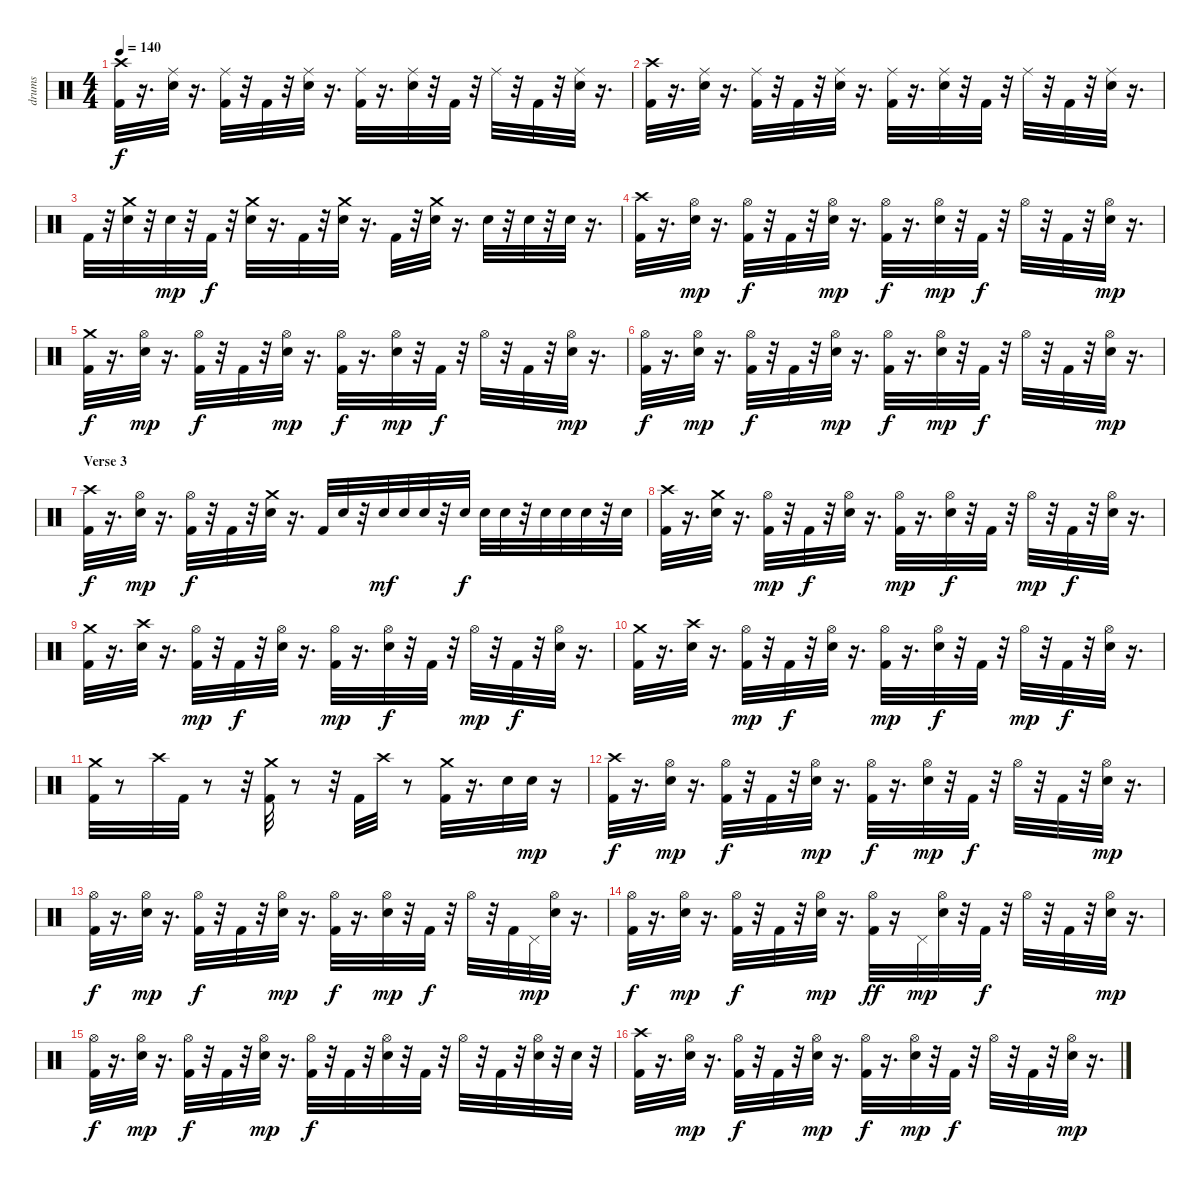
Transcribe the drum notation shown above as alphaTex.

\track ("drums" "drums") {instrument percussion}
\staff {score}
\articulation defaults
\ts (4 4)
\tempo 140
\clef neutral
\ks c
("Crash high (hit)" "Kick (hit) 2").32{dy f} r.16{d} ("Ride (middle)" "Electric Snare (hit)").32 r.16{d} ("Ride (middle)" "Kick (hit) 2").32 r.32 "Kick (hit) 2".32 r.32 ("Ride (middle)" "Electric Snare (hit)").32 r.16{d} ("Ride (middle)" "Kick (hit) 2").32 r.16{d} ("Ride (middle)" "Electric Snare (hit)").32 r.32 "Kick (hit) 2".32 r.32 "Ride (middle)".32 r.32 "Kick (hit) 2".32 r.32 ("Ride (middle)" "Electric Snare (hit)").32 r.16{d} |
("Crash high (hit)" "Kick (hit) 2").32 r.16{d} ("Ride (middle)" "Electric Snare (hit)").32 r.16{d} ("Ride (middle)" "Kick (hit) 2").32 r.32 "Kick (hit) 2".32 r.32 ("Ride (middle)" "Electric Snare (hit)").32 r.16{d} ("Ride (middle)" "Kick (hit) 2").32 r.16{d} ("Ride (middle)" "Electric Snare (hit)").32 r.32 "Kick (hit) 2".32 r.32 "Ride (middle)".32 r.32 "Kick (hit) 2".32 r.32 ("Ride (middle)" "Electric Snare (hit)").32 r.16{d} |
"Kick (hit) 2".32 r.32 ("Crash medium (hit)" "Electric Snare (hit)").32 r.32 "Electric Snare (hit)".32{dy mp} r.32 "Kick (hit) 2".32{dy f} r.32 ("Crash medium (hit)" "Electric Snare (hit)").32 r.16{d} "Kick (hit) 2".32 r.32 ("Crash medium (hit)" "Electric Snare (hit)").32 r.16{d} "Kick (hit) 2".32 r.32 ("Crash medium (hit)" "Electric Snare (hit)").32 r.16{d} "Electric Snare (hit)".32 r.32 "Electric Snare (hit)".32 r.32 "Electric Snare (hit)".32 r.16{d} |
("Crash high (hit)" "Kick (hit) 2").32 r.16{d} ("Hi-Hat (open)" "Electric Snare (hit)").32{dy mp} r.16{d} ("Hi-Hat (open)" "Kick (hit) 2").32{dy f} r.32 "Kick (hit) 2".32 r.32 ("Hi-Hat (open)" "Electric Snare (hit)").32{dy mp} r.16{d} ("Hi-Hat (open)" "Kick (hit) 2").32{dy f} r.16{d} ("Hi-Hat (open)" "Electric Snare (hit)").32{dy mp} r.32 "Kick (hit) 2".32{dy f} r.32 "Hi-Hat (open)".32 r.32 "Kick (hit) 2".32 r.32 ("Hi-Hat (open)" "Electric Snare (hit)").32{dy mp} r.16{d} |
("Crash medium (hit)" "Kick (hit) 2").32{dy f} r.16{d} ("Hi-Hat (open)" "Electric Snare (hit)").32{dy mp} r.16{d} ("Hi-Hat (open)" "Kick (hit) 2").32{dy f} r.32 "Kick (hit) 2".32 r.32 ("Hi-Hat (open)" "Electric Snare (hit)").32{dy mp} r.16{d} ("Hi-Hat (open)" "Kick (hit) 2").32{dy f} r.16{d} ("Hi-Hat (open)" "Electric Snare (hit)").32{dy mp} r.32 "Kick (hit) 2".32{dy f} r.32 "Hi-Hat (open)".32 r.32 "Kick (hit) 2".32 r.32 ("Hi-Hat (open)" "Electric Snare (hit)").32{dy mp} r.16{d} |
("Hi-Hat (open)" "Kick (hit) 2").32{dy f} r.16{d} ("Hi-Hat (open)" "Electric Snare (hit)").32{dy mp} r.16{d} ("Hi-Hat (open)" "Kick (hit) 2").32{dy f} r.32 "Kick (hit) 2".32 r.32 ("Hi-Hat (open)" "Electric Snare (hit)").32{dy mp} r.16{d} ("Hi-Hat (open)" "Kick (hit) 2").32{dy f} r.16{d} ("Hi-Hat (open)" "Electric Snare (hit)").32{dy mp} r.32 "Kick (hit) 2".32{dy f} r.32 "Hi-Hat (open)".32 r.32 "Kick (hit) 2".32 r.32 ("Hi-Hat (open)" "Electric Snare (hit)").32{dy mp} r.16{d} |
\section ("" "Verse 3")
("Crash high (hit)" "Kick (hit) 2").32{dy f} r.16{d} ("Hi-Hat (open)" "Electric Snare (hit)").32{dy mp} r.16{d} ("Hi-Hat (open)" "Kick (hit) 2").32{dy f} r.32 "Kick (hit) 2".32 r.32 ("Crash medium (hit)" "Electric Snare (hit)").32 r.16{d} "Kick (hit) 2".32 "Electric Snare (hit)".32 r.32 "Electric Snare (hit)".32{dy mf} "Electric Snare (hit)".32 "Electric Snare (hit)".32 r.32 "Electric Snare (hit)".32{dy f} "Electric Snare (hit)".32 "Electric Snare (hit)".32 r.32 "Electric Snare (hit)".32 "Electric Snare (hit)".32 "Electric Snare (hit)".32 r.32 "Electric Snare (hit)".32 |
("Crash high (hit)" "Kick (hit) 2").32 r.16{d} ("Crash medium (hit)" "Electric Snare (hit)").32 r.16{d} ("Hi-Hat (open)" "Kick (hit) 2").32{dy mp} r.32 "Kick (hit) 2".32{dy f} r.32 ("Hi-Hat (open)" "Electric Snare (hit)").32 r.16{d} ("Hi-Hat (open)" "Kick (hit) 2").32{dy mp} r.16{d} ("Hi-Hat (open)" "Electric Snare (hit)").32{dy f} r.32 "Kick (hit) 2".32 r.32 "Hi-Hat (open)".32{dy mp} r.32 "Kick (hit) 2".32{dy f} r.32 ("Hi-Hat (open)" "Electric Snare (hit)").32 r.16{d} |
("Crash medium (hit)" "Kick (hit) 2").32 r.16{d} ("Electric Snare (hit)" "Crash high (hit)").32 r.16{d} ("Hi-Hat (open)" "Kick (hit) 2").32{dy mp} r.32 "Kick (hit) 2".32{dy f} r.32 ("Hi-Hat (open)" "Electric Snare (hit)").32 r.16{d} ("Hi-Hat (open)" "Kick (hit) 2").32{dy mp} r.16{d} ("Hi-Hat (open)" "Electric Snare (hit)").32{dy f} r.32 "Kick (hit) 2".32 r.32 "Hi-Hat (open)".32{dy mp} r.32 "Kick (hit) 2".32{dy f} r.32 ("Hi-Hat (open)" "Electric Snare (hit)").32 r.16{d} |
("Kick (hit) 2" "Crash medium (hit)").32 r.16{d} ("Electric Snare (hit)" "Crash high (hit)").32 r.16{d} ("Hi-Hat (open)" "Kick (hit) 2").32{dy mp} r.32 "Kick (hit) 2".32{dy f} r.32 ("Electric Snare (hit)" "Hi-Hat (open)").32 r.16{d} ("Hi-Hat (open)" "Kick (hit) 2").32{dy mp} r.16{d} ("Electric Snare (hit)" "Hi-Hat (open)").32{dy f} r.32 "Kick (hit) 2".32 r.32 "Hi-Hat (open)".32{dy mp} r.32 "Kick (hit) 2".32{dy f} r.32 ("Electric Snare (hit)" "Hi-Hat (open)").32 r.16{d} |
("Crash medium (hit)" "Kick (hit) 2").32 r.8 "Crash high (hit)".32 "Kick (hit) 2".32 r.8 r.32 ("Crash medium (hit)" "Kick (hit) 2").32 r.8 r.32 "Kick (hit) 2".32 "Crash high (hit)".32 r.8 ("Crash medium (hit)" "Kick (hit) 2").32 r.16{d} "Electric Snare (hit)".32 "Snare (hit) 2".32{dy mp} r.16 |
("Crash high (hit)" "Kick (hit) 2").32{dy f} r.16{d} ("Hi-Hat (open)" "Electric Snare (hit)").32{dy mp} r.16{d} ("Hi-Hat (open)" "Kick (hit) 2").32{dy f} r.32 "Kick (hit) 2".32 r.32 ("Hi-Hat (open)" "Electric Snare (hit)").32{dy mp} r.16{d} ("Hi-Hat (open)" "Kick (hit) 2").32{dy f} r.16{d} ("Hi-Hat (open)" "Electric Snare (hit)").32{dy mp} r.32 "Kick (hit) 2".32{dy f} r.32 "Hi-Hat (open)".32 r.32 "Kick (hit) 2".32 r.32 ("Hi-Hat (open)" "Electric Snare (hit)").32{dy mp} r.16{d} |
("Hi-Hat (open)" "Kick (hit) 2").32{dy f} r.16{d} ("Hi-Hat (open)" "Electric Snare (hit)").32{dy mp} r.16{d} ("Hi-Hat (open)" "Kick (hit) 2").32{dy f} r.32 "Kick (hit) 2".32 r.32 ("Hi-Hat (open)" "Electric Snare (hit)").32{dy mp} r.16{d} ("Hi-Hat (open)" "Kick (hit) 2").32{dy f} r.16{d} ("Hi-Hat (open)" "Electric Snare (hit)").32{dy mp} r.32 "Kick (hit) 2".32{dy f} r.32 "Hi-Hat (open)".32 r.32 "Kick (hit) 2".32 "Pedal Hi-Hat (hit)".32{dy mp} ("Hi-Hat (open)" "Electric Snare (hit)").32 r.16{d} |
("Hi-Hat (open)" "Kick (hit) 2").32{dy f} r.16{d} ("Hi-Hat (open)" "Electric Snare (hit)").32{dy mp} r.16{d} ("Hi-Hat (open)" "Kick (hit) 2").32{dy f} r.32 "Kick (hit) 2".32 r.32 ("Hi-Hat (open)" "Electric Snare (hit)").32{dy mp} r.16{d} ("Hi-Hat (open)" "Kick (hit) 2").32{dy ff} r.16 "Pedal Hi-Hat (hit)".32{dy mp} ("Hi-Hat (open)" "Electric Snare (hit)").32 r.32 "Kick (hit) 2".32{dy f} r.32 "Hi-Hat (open)".32 r.32 "Kick (hit) 2".32 r.32 ("Hi-Hat (open)" "Electric Snare (hit)").32{dy mp} r.16{d} |
("Hi-Hat (open)" "Kick (hit) 2").32{dy f} r.16{d} ("Hi-Hat (open)" "Electric Snare (hit)").32{dy mp} r.16{d} ("Hi-Hat (open)" "Kick (hit) 2").32{dy f} r.32 "Kick (hit) 2".32 r.32 ("Hi-Hat (open)" "Electric Snare (hit)").32{dy mp} r.16{d} ("Hi-Hat (open)" "Kick (hit) 2").32{dy f} r.32 "Kick (hit) 2".32 r.32 ("Hi-Hat (open)" "Electric Snare (hit)").32 r.32 "Kick (hit) 2".32 r.32 "Hi-Hat (open)".32 r.32 "Kick (hit) 2".32 r.32 ("Hi-Hat (open)" "Electric Snare (hit)").32 r.32 "Electric Snare (hit)".32 r.32 |
("Crash high (hit)" "Kick (hit) 2").32 r.16{d} ("Hi-Hat (open)" "Electric Snare (hit)").32{dy mp} r.16{d} ("Hi-Hat (open)" "Kick (hit) 2").32{dy f} r.32 "Kick (hit) 2".32 r.32 ("Hi-Hat (open)" "Electric Snare (hit)").32{dy mp} r.16{d} ("Hi-Hat (open)" "Kick (hit) 2").32{dy f} r.16{d} ("Hi-Hat (open)" "Electric Snare (hit)").32{dy mp} r.32 "Kick (hit) 2".32{dy f} r.32 "Hi-Hat (open)".32 r.32 "Kick (hit) 2".32 r.32 ("Hi-Hat (open)" "Electric Snare (hit)").32{dy mp} r.16{d}
